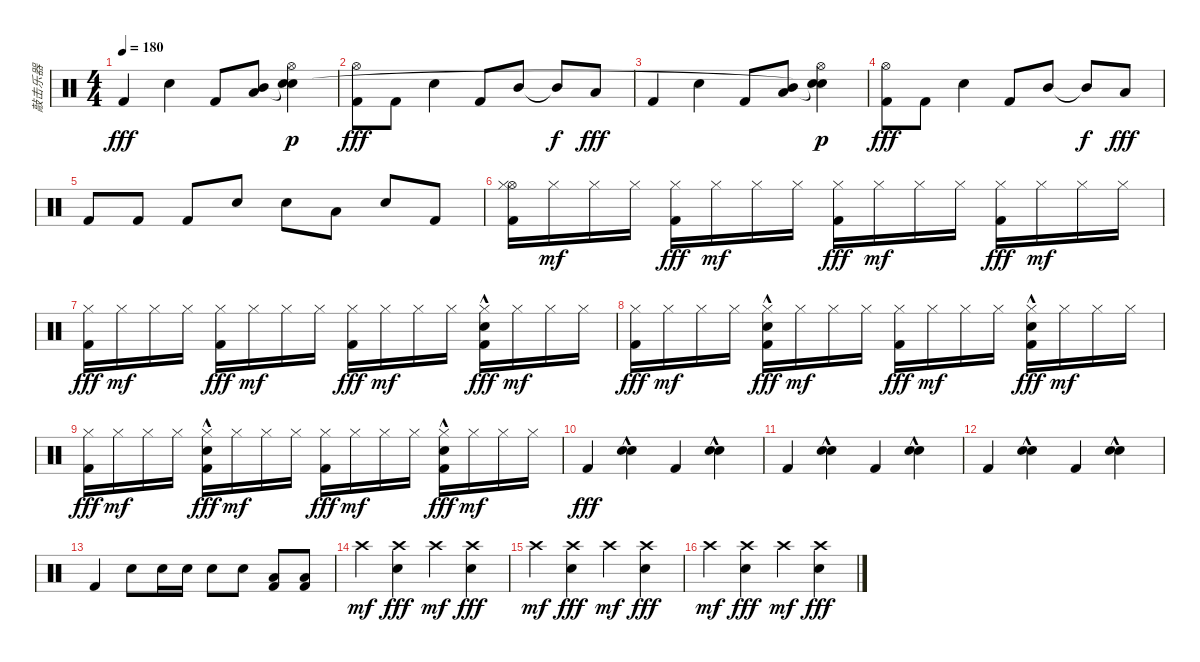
\track ("敲击乐器" "敲击乐器") {instrument percussion}
\staff {score}
\articulation defaults
\ts (4 4)
\tempo 180
\clef neutral
\ks c "Kick (hit) 2".4{dy fff} "Electric Snare (hit)".4 "Kick (hit) 2".8
("Mid Tom (hit)" "Low Tom (hit)").8 ("Hi-Hat (open)" "Snare (hit)"{t} "Snare (hit)"{t}).4{dy p} |
("Hi-Hat (open)" "Kick (hit) 2").8{dy fff} "Kick (hit) 2".8 "Electric Snare (hit)".4 "Kick (hit) 2".8 "Mid Tom (hit)".8 "Mid Tom (hit)"{t}.8{dy f} "Low Tom (hit)".8{dy fff} |
"Kick (hit) 2".4 "Electric Snare (hit)".4 "Kick (hit) 2".8 ("Mid Tom (hit)" "Low Tom (hit)").8 ("Hi-Hat (open)" "Snare (hit)"{t} "Snare (hit)"{t}).4{dy p} |
("Hi-Hat (open)" "Kick (hit) 2").8{dy fff} "Kick (hit) 2".8 "Electric Snare (hit)".4 "Kick (hit) 2".8 "Mid Tom (hit)".8 "Mid Tom (hit)"{t}.8{dy f} "Low Tom (hit)".8{dy fff} |
"Kick (hit) 2".8 "Kick (hit) 2".8 "Kick (hit) 2".8 "Electric Snare (hit)".8 "Electric Snare (hit)".8 "Low Tom (hit)".8 "Electric Snare (hit)".8 "Kick (hit) 2".8 |
("Hi-Hat (open)" "Hi-Hat (closed)" "Kick (hit) 2").16 "Hi-Hat (closed)".16{dy mf} "Hi-Hat (closed)".16 "Hi-Hat (closed)".16 ("Hi-Hat (closed)" "Kick (hit) 2").16{dy fff} "Hi-Hat (closed)".16{dy mf} "Hi-Hat (closed)".16 "Hi-Hat (closed)".16 ("Hi-Hat (closed)" "Kick (hit) 2").16{dy fff} "Hi-Hat (closed)".16{dy mf} "Hi-Hat (closed)".16 "Hi-Hat (closed)".16 ("Hi-Hat (closed)" "Kick (hit) 2").16{dy fff} "Hi-Hat (closed)".16{dy mf} "Hi-Hat (closed)".16 "Hi-Hat (closed)".16 |
("Hi-Hat (closed)" "Kick (hit) 2").16{dy fff} "Hi-Hat (closed)".16{dy mf} "Hi-Hat (closed)".16 "Hi-Hat (closed)".16 ("Hi-Hat (closed)" "Kick (hit) 2").16{dy fff} "Hi-Hat (closed)".16{dy mf} "Hi-Hat (closed)".16 "Hi-Hat (closed)".16 ("Hi-Hat (closed)" "Kick (hit) 2").16{dy fff} "Hi-Hat (closed)".16{dy mf} "Hi-Hat (closed)".16 "Hi-Hat (closed)".16 ("Hi-Hat (closed)" "Electric Snare (hit)"{hac} "Kick (hit) 2").16{dy fff} "Hi-Hat (closed)".16{dy mf} "Hi-Hat (closed)".16 "Hi-Hat (closed)".16 |
("Hi-Hat (closed)" "Kick (hit) 2").16{dy fff} "Hi-Hat (closed)".16{dy mf} "Hi-Hat (closed)".16 "Hi-Hat (closed)".16 ("Hi-Hat (closed)" "Electric Snare (hit)"{hac} "Kick (hit) 2").16{dy fff} "Hi-Hat (closed)".16{dy mf} "Hi-Hat (closed)".16 "Hi-Hat (closed)".16 ("Hi-Hat (closed)" "Kick (hit) 2").16{dy fff} "Hi-Hat (closed)".16{dy mf} "Hi-Hat (closed)".16 "Hi-Hat (closed)".16 ("Hi-Hat (closed)" "Electric Snare (hit)"{hac} "Kick (hit) 2").16{dy fff} "Hi-Hat (closed)".16{dy mf} "Hi-Hat (closed)".16 "Hi-Hat (closed)".16 |
("Hi-Hat (closed)" "Kick (hit) 2").16{dy fff} "Hi-Hat (closed)".16{dy mf} "Hi-Hat (closed)".16 "Hi-Hat (closed)".16 ("Hi-Hat (closed)" "Electric Snare (hit)"{hac} "Kick (hit) 2").16{dy fff} "Hi-Hat (closed)".16{dy mf} "Hi-Hat (closed)".16 "Hi-Hat (closed)".16 ("Hi-Hat (closed)" "Kick (hit) 2").16{dy fff} "Hi-Hat (closed)".16{dy mf} "Hi-Hat (closed)".16 "Hi-Hat (closed)".16 ("Hi-Hat (closed)" "Electric Snare (hit)"{hac} "Kick (hit) 2").16{dy fff} "Hi-Hat (closed)".16{dy mf} "Hi-Hat (closed)".16 "Hi-Hat (closed)".16 |
"Kick (hit) 2".4{dy fff} ("Electric Snare (hit)"{hac} "Electric Snare (hit)").4 "Kick (hit) 2".4 ("Electric Snare (hit)"{hac} "Electric Snare (hit)").4 |
"Kick (hit) 2".4 ("Electric Snare (hit)"{hac} "Electric Snare (hit)").4 "Kick (hit) 2".4 ("Electric Snare (hit)"{hac} "Electric Snare (hit)").4 |
"Kick (hit) 2".4 ("Electric Snare (hit)"{hac} "Electric Snare (hit)").4 "Kick (hit) 2".4 ("Electric Snare (hit)"{hac} "Electric Snare (hit)").4 |
"Kick (hit) 2".4 "Electric Snare (hit)".8 "Electric Snare (hit)".16 "Electric Snare (hit)".16 "Electric Snare (hit)".8 "Electric Snare (hit)".8 ("Low Tom (hit)" "Kick (hit) 2").8 ("Low Tom (hit)" "Kick (hit) 2").8 |
"Crash high (hit)".4{dy mf} ("Crash high (hit)" "Electric Snare (hit)").4{dy fff} "Crash high (hit)".4{dy mf} ("Crash high (hit)" "Electric Snare (hit)").4{dy fff} |
"Crash high (hit)".4{dy mf} ("Crash high (hit)" "Electric Snare (hit)").4{dy fff} "Crash high (hit)".4{dy mf} ("Crash high (hit)" "Electric Snare (hit)").4{dy fff} |
"Crash high (hit)".4{dy mf} ("Crash high (hit)" "Electric Snare (hit)").4{dy fff} "Crash high (hit)".4{dy mf} ("Crash high (hit)" "Electric Snare (hit)").4{dy fff}
